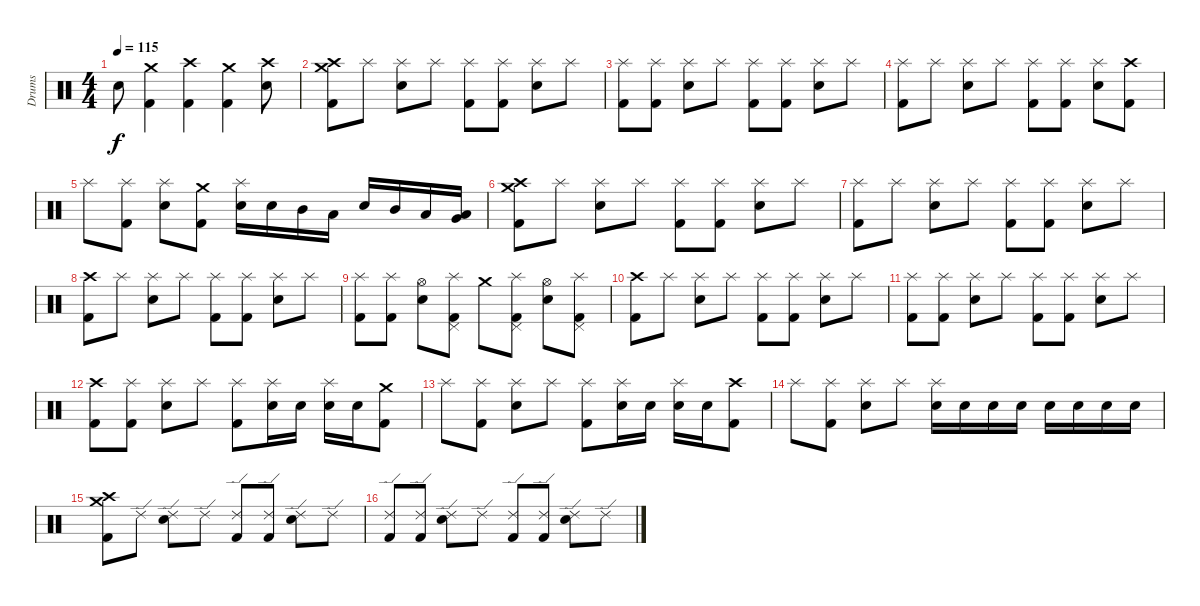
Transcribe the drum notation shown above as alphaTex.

\track ("Drums" "Drums") {instrument percussion}
\staff {score}
\articulation defaults
\ts (4 4)
\tempo 115
\clef neutral
\ks c "Snare (hit) 2".8{dy f}
("Kick (hit) 2" "Crash medium (hit)").4 ("Kick (hit) 2" "Crash high (hit)").4 ("Kick (hit) 2" "Crash medium (hit)").4 ("Snare (hit) 2" "Crash high (hit)").8 |
("Crash medium (hit)" "Crash high (hit)" "Kick (hit) 2").8 "Splash (hit)".8 ("Splash (hit)" "Snare (hit) 2").8 "Splash (hit)".8 ("Splash (hit)" "Kick (hit) 2").8 ("Splash (hit)" "Kick (hit) 2").8 ("Splash (hit)" "Snare (hit) 2").8 "Splash (hit)".8 |
("Splash (hit)" "Kick (hit) 2").8 ("Splash (hit)" "Kick (hit) 2").8 ("Splash (hit)" "Snare (hit) 2").8 "Splash (hit)".8 ("Splash (hit)" "Kick (hit) 2").8 ("Splash (hit)" "Kick (hit) 2").8 ("Splash (hit)" "Snare (hit) 2").8 "Splash (hit)".8 |
("Kick (hit) 2" "Splash (hit)").8 "Splash (hit)".8 ("Splash (hit)" "Snare (hit) 2").8 "Splash (hit)".8 ("Splash (hit)" "Kick (hit) 2").8 ("Splash (hit)" "Kick (hit) 2").8 ("Splash (hit)" "Snare (hit) 2").8 ("Crash high (hit)" "Kick (hit) 2").8 |
"Splash (hit)".8 ("Splash (hit)" "Kick (hit) 2").8 ("Splash (hit)" "Snare (hit) 2").8 ("Crash medium (hit)" "Kick (hit) 2").8 ("Splash (hit)" "Snare (hit) 2").16 "Snare (hit) 2".16 "Mid Tom (hit)".16 "Low Tom (hit)".16 "Snare (hit) 2".16 "Mid Tom (hit)".16 "Low Tom (hit)".16 ("Very Low Tom (hit)" "Low Tom (hit)").16 |
("Crash high (hit)" "Crash medium (hit)" "Kick (hit) 2").8 "Splash (hit)".8 ("Snare (hit) 2" "Splash (hit)").8 "Splash (hit)".8 ("Kick (hit) 2" "Splash (hit)").8 ("Splash (hit)" "Kick (hit) 2").8 ("Splash (hit)" "Snare (hit) 2").8 "Splash (hit)".8 |
("Splash (hit)" "Kick (hit) 2").8 "Splash (hit)".8 ("Splash (hit)" "Snare (hit) 2").8 "Splash (hit)".8 ("Splash (hit)" "Kick (hit) 2").8 ("Splash (hit)" "Kick (hit) 2").8 ("Splash (hit)" "Snare (hit) 2").8 "Splash (hit)".8 |
("Crash high (hit)" "Kick (hit) 2").8 "Splash (hit)".8 ("Splash (hit)" "Snare (hit) 2").8 "Splash (hit)".8 ("Splash (hit)" "Kick (hit) 2").8 ("Splash (hit)" "Kick (hit) 2").8 ("Splash (hit)" "Snare (hit) 2").8 "Splash (hit)".8 |
("Splash (hit)" "Kick (hit) 2").8 ("Splash (hit)" "Kick (hit) 2").8 ("Snare (hit) 2" "Hi-Hat (open)").8 ("Kick (hit) 2" "Splash (hit)" "Pedal Hi-Hat (hit)").8 "Crash medium (hit)".8 ("Kick (hit) 2" "Splash (hit)" "Pedal Hi-Hat (hit)").8 ("Snare (hit) 2" "Hi-Hat (open)").8 ("Kick (hit) 2" "Splash (hit)" "Pedal Hi-Hat (hit)").8 |
("Crash high (hit)" "Kick (hit) 2").8 "Splash (hit)".8 ("Splash (hit)" "Snare (hit) 2").8 "Splash (hit)".8 ("Splash (hit)" "Kick (hit) 2").8 ("Splash (hit)" "Kick (hit) 2").8 ("Splash (hit)" "Snare (hit) 2").8 "Splash (hit)".8 |
("Splash (hit)" "Kick (hit) 2").8 ("Splash (hit)" "Kick (hit) 2").8 ("Splash (hit)" "Snare (hit) 2").8 "Splash (hit)".8 ("Splash (hit)" "Kick (hit) 2").8 ("Splash (hit)" "Kick (hit) 2").8 ("Splash (hit)" "Snare (hit) 2").8 "Splash (hit)".8 |
("Crash high (hit)" "Kick (hit) 2").8 ("Splash (hit)" "Kick (hit) 2").8 ("Splash (hit)" "Snare (hit) 2").8 "Splash (hit)".8 ("Splash (hit)" "Kick (hit) 2").8 ("Splash (hit)" "Snare (hit) 2").16 "Snare (hit) 2".16 ("Splash (hit)" "Snare (hit) 2").16 "Snare (hit) 2".16 ("Crash medium (hit)" "Kick (hit) 2").8 |
"Splash (hit)".8 ("Splash (hit)" "Kick (hit) 2").8 ("Splash (hit)" "Snare (hit) 2").8 "Splash (hit)".8 ("Splash (hit)" "Kick (hit) 2").8 ("Splash (hit)" "Snare (hit) 2").16 "Snare (hit) 2".16 ("Splash (hit)" "Snare (hit) 2").16 "Snare (hit) 2".16 ("Crash high (hit)" "Kick (hit) 2").8 |
"Splash (hit)".8 ("Splash (hit)" "Kick (hit) 2").8 ("Splash (hit)" "Snare (hit) 2").8 "Splash (hit)".8 ("Splash (hit)" "Snare (hit) 2").16 "Snare (hit) 2".16 "Snare (hit) 2".16 "Snare (hit) 2".16 "Snare (hit) 2".16 "Snare (hit) 2".16 "Snare (hit) 2".16 "Snare (hit) 2".16 |
("Kick (hit) 2" "Crash high (hit)" "Crash medium (hit)").8 "Ride (edge) 2".8 ("Ride (edge) 2" "Snare (hit) 2").8 "Ride (edge) 2".8 ("Ride (edge) 2" "Kick (hit) 2").8 ("Ride (edge) 2" "Kick (hit) 2").8 ("Ride (edge) 2" "Snare (hit) 2").8 "Ride (edge) 2".8 |
("Ride (edge) 2" "Kick (hit) 2").8 ("Ride (edge) 2" "Kick (hit) 2").8 ("Ride (edge) 2" "Snare (hit) 2").8 "Ride (edge) 2".8 ("Ride (edge) 2" "Kick (hit) 2").8 ("Ride (edge) 2" "Kick (hit) 2").8 ("Ride (edge) 2" "Snare (hit) 2").8 "Ride (edge) 2".8
